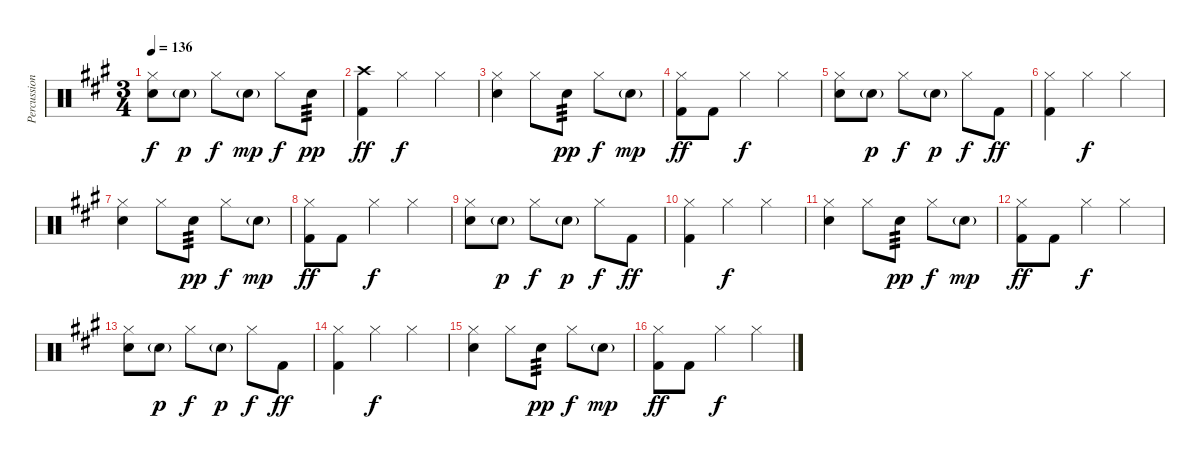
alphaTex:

\track ("Percussion" "Percussion") {solo instrument percussion}
\staff {score}
\articulation defaults
\ts (3 4)
\tempo 136
\clef neutral
\ks a
("Hi-Hat (closed)" "Snare (hit) 2").8{dy f} "Snare (hit) 2"{g}.8{dy p} "Hi-Hat (closed)".8{dy f} "Snare (hit) 2"{g}.8{dy mp} "Hi-Hat (closed)".8{dy f} "Snare (hit) 2".8{tp 3 dy pp} |
("Crash high (hit)" "Kick (hit) 2").4{dy ff} "Hi-Hat (closed)".4{dy f} "Hi-Hat (closed)".4 |
("Hi-Hat (closed)" "Snare (hit) 2").4 "Hi-Hat (closed)".8 "Snare (hit) 2".8{tp 3 dy pp} "Hi-Hat (closed)".8{dy f} "Snare (hit) 2"{g}.8{dy mp} |
("Hi-Hat (closed)" "Kick (hit) 2").8{dy ff} "Kick (hit) 2".8 "Hi-Hat (closed)".4{dy f} "Hi-Hat (closed)".4 |
("Hi-Hat (closed)" "Snare (hit) 2").8 "Snare (hit) 2"{g}.8{dy p} "Hi-Hat (closed)".8{dy f} "Snare (hit) 2"{g}.8{dy p} "Hi-Hat (closed)".8{dy f} "Kick (hit) 2".8{dy ff} |
("Hi-Hat (closed)" "Kick (hit) 2").4 "Hi-Hat (closed)".4{dy f} "Hi-Hat (closed)".4 |
("Hi-Hat (closed)" "Snare (hit) 2").4 "Hi-Hat (closed)".8 "Snare (hit) 2".8{tp 3 dy pp} "Hi-Hat (closed)".8{dy f} "Snare (hit) 2"{g}.8{dy mp} |
("Hi-Hat (closed)" "Kick (hit) 2").8{dy ff} "Kick (hit) 2".8 "Hi-Hat (closed)".4{dy f} "Hi-Hat (closed)".4 |
("Hi-Hat (closed)" "Snare (hit) 2").8 "Snare (hit) 2"{g}.8{dy p} "Hi-Hat (closed)".8{dy f} "Snare (hit) 2"{g}.8{dy p} "Hi-Hat (closed)".8{dy f} "Kick (hit) 2".8{dy ff} |
("Hi-Hat (closed)" "Kick (hit) 2").4 "Hi-Hat (closed)".4{dy f} "Hi-Hat (closed)".4 |
("Hi-Hat (closed)" "Snare (hit) 2").4 "Hi-Hat (closed)".8 "Snare (hit) 2".8{tp 3 dy pp} "Hi-Hat (closed)".8{dy f} "Snare (hit) 2"{g}.8{dy mp} |
("Hi-Hat (closed)" "Kick (hit) 2").8{dy ff} "Kick (hit) 2".8 "Hi-Hat (closed)".4{dy f} "Hi-Hat (closed)".4 |
("Hi-Hat (closed)" "Snare (hit) 2").8 "Snare (hit) 2"{g}.8{dy p} "Hi-Hat (closed)".8{dy f} "Snare (hit) 2"{g}.8{dy p} "Hi-Hat (closed)".8{dy f} "Kick (hit) 2".8{dy ff} |
("Hi-Hat (closed)" "Kick (hit) 2").4 "Hi-Hat (closed)".4{dy f} "Hi-Hat (closed)".4 |
("Hi-Hat (closed)" "Snare (hit) 2").4 "Hi-Hat (closed)".8 "Snare (hit) 2".8{tp 3 dy pp} "Hi-Hat (closed)".8{dy f} "Snare (hit) 2"{g}.8{dy mp} |
("Hi-Hat (closed)" "Kick (hit) 2").8{dy ff} "Kick (hit) 2".8 "Hi-Hat (closed)".4{dy f} "Hi-Hat (closed)".4
